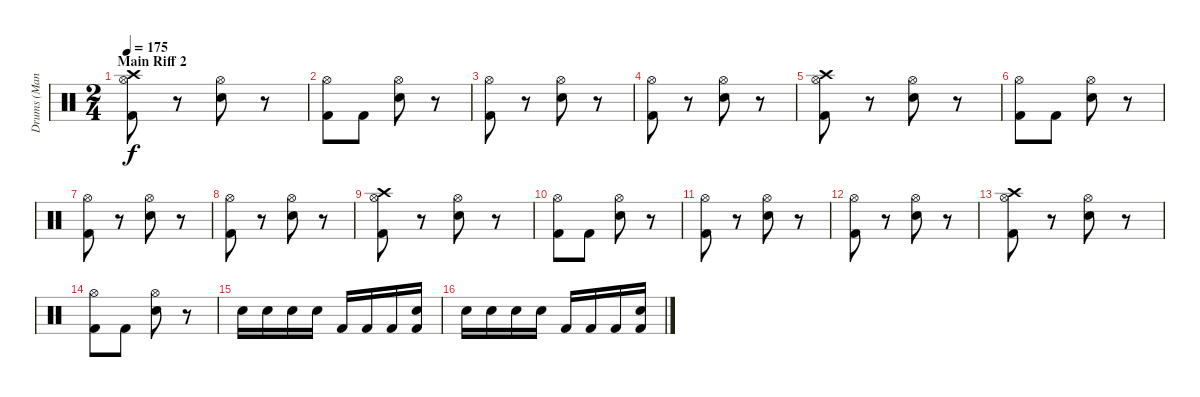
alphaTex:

\track ("Drums (Mancino)" "Drums (Man") {instrument percussion}
\staff {score}
\articulation defaults
\ts (2 4)
\section ("" "Main Riff 2")
\tempo 175
\clef neutral
\ks c
("Hi-Hat (open)" "Crash high (hit)" "Kick (hit) 2").8{dy f} r.8 ("Hi-Hat (open)" "Electric Snare (hit)").8 r.8 |
("Hi-Hat (open)" "Kick (hit) 2").8 "Kick (hit) 2".8 ("Hi-Hat (open)" "Electric Snare (hit)").8 r.8 |
("Hi-Hat (open)" "Kick (hit) 2").8 r.8 ("Hi-Hat (open)" "Electric Snare (hit)").8 r.8 |
("Hi-Hat (open)" "Kick (hit) 2").8 r.8 ("Hi-Hat (open)" "Electric Snare (hit)").8 r.8 |
("Hi-Hat (open)" "Crash high (hit)" "Kick (hit) 2").8 r.8 ("Hi-Hat (open)" "Electric Snare (hit)").8 r.8 |
("Hi-Hat (open)" "Kick (hit) 2").8 "Kick (hit) 2".8 ("Hi-Hat (open)" "Electric Snare (hit)").8 r.8 |
("Hi-Hat (open)" "Kick (hit) 2").8 r.8 ("Hi-Hat (open)" "Electric Snare (hit)").8 r.8 |
("Hi-Hat (open)" "Kick (hit) 2").8 r.8 ("Hi-Hat (open)" "Electric Snare (hit)").8 r.8 |
("Hi-Hat (open)" "Crash high (hit)" "Kick (hit) 2").8 r.8 ("Hi-Hat (open)" "Electric Snare (hit)").8 r.8 |
("Hi-Hat (open)" "Kick (hit) 2").8 "Kick (hit) 2".8 ("Hi-Hat (open)" "Electric Snare (hit)").8 r.8 |
("Hi-Hat (open)" "Kick (hit) 2").8 r.8 ("Hi-Hat (open)" "Electric Snare (hit)").8 r.8 |
("Hi-Hat (open)" "Kick (hit) 2").8 r.8 ("Hi-Hat (open)" "Electric Snare (hit)").8 r.8 |
("Hi-Hat (open)" "Crash high (hit)" "Kick (hit) 2").8 r.8 ("Hi-Hat (open)" "Electric Snare (hit)").8 r.8 |
("Hi-Hat (open)" "Kick (hit) 2").8 "Kick (hit) 2".8 ("Hi-Hat (open)" "Electric Snare (hit)").8 r.8 |
"Electric Snare (hit)".16 "Electric Snare (hit)".16 "Electric Snare (hit)".16 "Electric Snare (hit)".16 "Kick (hit) 2".16 "Kick (hit) 2".16 "Kick (hit) 2".16 ("Electric Snare (hit)" "Kick (hit) 2").16 |
"Electric Snare (hit)".16 "Electric Snare (hit)".16 "Electric Snare (hit)".16 "Electric Snare (hit)".16 "Kick (hit) 2".16 "Kick (hit) 2".16 "Kick (hit) 2".16 ("Electric Snare (hit)" "Kick (hit) 2").16
